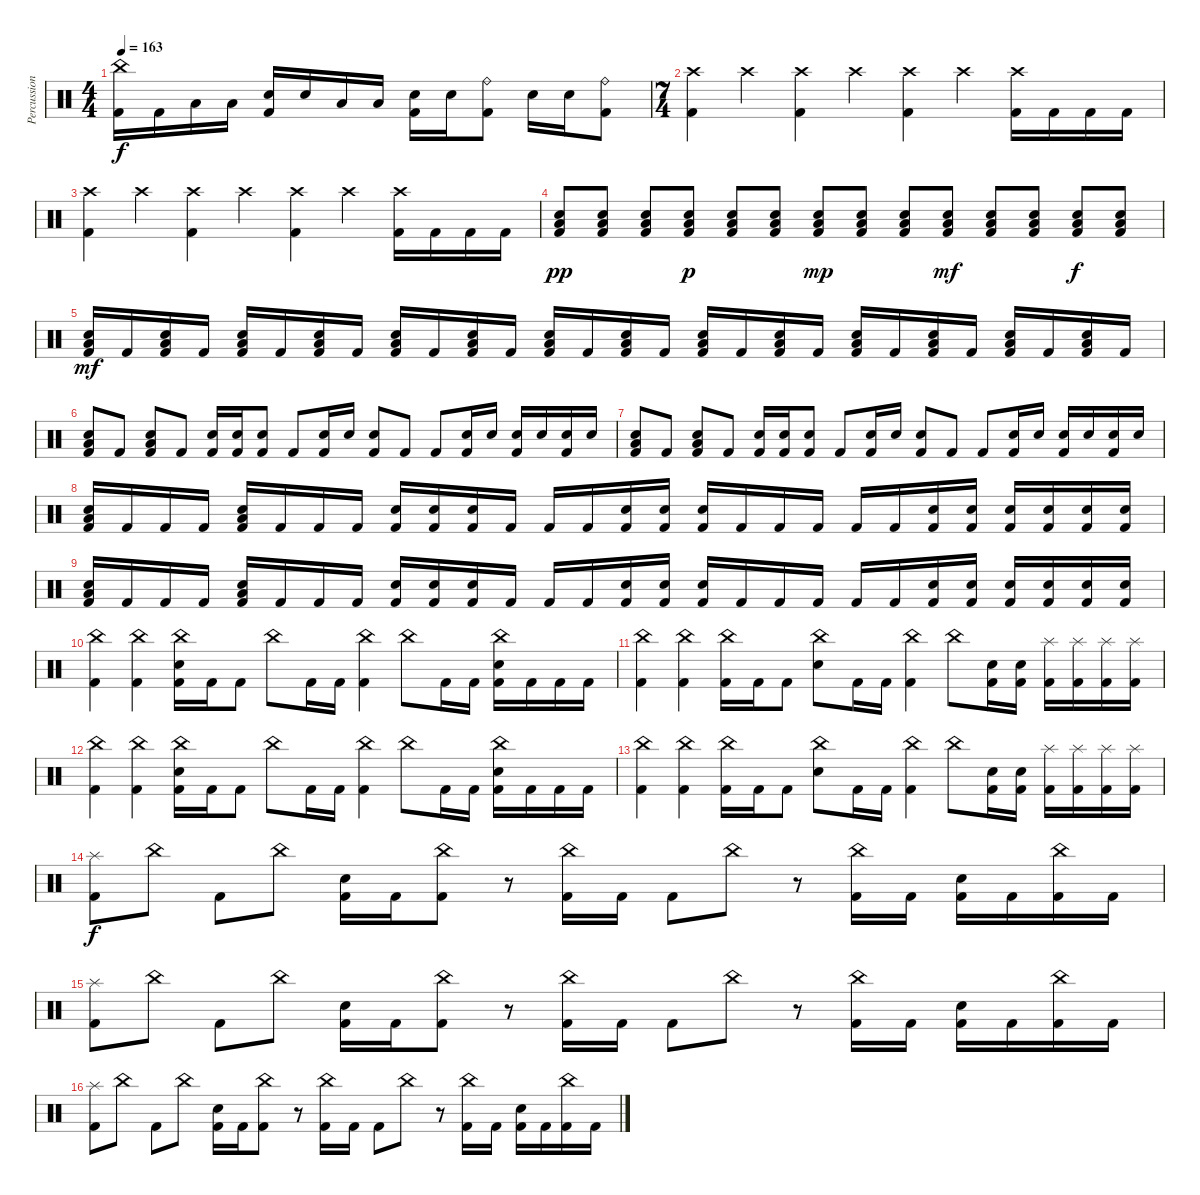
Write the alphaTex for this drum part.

\track ("Percussion" "Percussion") {instrument percussion}
\staff {score}
\articulation defaults
\ts (4 4)
\tempo 163
\clef neutral
\ks c
("China (hit)" "Kick (hit) 2").16{dy f} "Kick (hit) 2".16 "Low Tom (hit)".16 "Low Tom (hit)".16 ("Electric Snare (hit)" "Kick (hit) 2").16 "Electric Snare (hit)".16 "Low Tom (hit)".16 "Low Tom (hit)".16 ("Electric Snare (hit)" "Kick (hit) 2").16 "Electric Snare (hit)".16 ("Ride (bell)" "Kick (hit) 2").8 "Electric Snare (hit)".16 "Electric Snare (hit)".16 ("Ride (bell)" "Kick (hit) 2").8 |
\ts (7 4)
("Crash high (hit)" "Kick (hit) 2").4 "Crash high (hit)".4 ("Crash high (hit)" "Kick (hit) 2").4 "Crash high (hit)".4 ("Crash high (hit)" "Kick (hit) 2").4 "Crash high (hit)".4 ("Crash high (hit)" "Kick (hit) 2").16 "Kick (hit) 2".16 "Kick (hit) 2".16 "Kick (hit) 2".16 |
("Crash high (hit)" "Kick (hit) 2").4 "Crash high (hit)".4 ("Crash high (hit)" "Kick (hit) 2").4 "Crash high (hit)".4 ("Crash high (hit)" "Kick (hit) 2").4 "Crash high (hit)".4 ("Crash high (hit)" "Kick (hit) 2").16 "Kick (hit) 2".16 "Kick (hit) 2".16 "Kick (hit) 2".16 |
("Low Floor Tom (hit)" "Electric Snare (hit)" "Kick (hit) 2").8{dy pp} ("Low Floor Tom (hit)" "Electric Snare (hit)" "Kick (hit) 2").8 ("Low Floor Tom (hit)" "Electric Snare (hit)" "Kick (hit) 2").8 ("Low Floor Tom (hit)" "Electric Snare (hit)" "Kick (hit) 2").8{dy p} ("Low Floor Tom (hit)" "Electric Snare (hit)" "Kick (hit) 2").8 ("Low Floor Tom (hit)" "Electric Snare (hit)" "Kick (hit) 2").8 ("Low Floor Tom (hit)" "Electric Snare (hit)" "Kick (hit) 2").8{dy mp} ("Low Floor Tom (hit)" "Electric Snare (hit)" "Kick (hit) 2").8 ("Low Floor Tom (hit)" "Electric Snare (hit)" "Kick (hit) 2").8 ("Low Floor Tom (hit)" "Electric Snare (hit)" "Kick (hit) 2").8{dy mf} ("Low Floor Tom (hit)" "Electric Snare (hit)" "Kick (hit) 2").8 ("Low Floor Tom (hit)" "Electric Snare (hit)" "Kick (hit) 2").8 ("Low Floor Tom (hit)" "Electric Snare (hit)" "Kick (hit) 2").8{dy f} ("Low Floor Tom (hit)" "Electric Snare (hit)" "Kick (hit) 2").8 |
("Electric Snare (hit)" "Low Floor Tom (hit)" "Kick (hit) 2").16{dy mf} "Kick (hit) 2".16 ("Electric Snare (hit)" "Low Floor Tom (hit)" "Kick (hit) 2").16 "Kick (hit) 2".16 ("Electric Snare (hit)" "Low Floor Tom (hit)" "Kick (hit) 2").16 "Kick (hit) 2".16 ("Electric Snare (hit)" "Low Floor Tom (hit)" "Kick (hit) 2").16 "Kick (hit) 2".16 ("Electric Snare (hit)" "Low Floor Tom (hit)" "Kick (hit) 2").16 "Kick (hit) 2".16 ("Electric Snare (hit)" "Low Floor Tom (hit)" "Kick (hit) 2").16 "Kick (hit) 2".16 ("Electric Snare (hit)" "Low Floor Tom (hit)" "Kick (hit) 2").16 "Kick (hit) 2".16 ("Electric Snare (hit)" "Low Floor Tom (hit)" "Kick (hit) 2").16 "Kick (hit) 2".16 ("Electric Snare (hit)" "Low Floor Tom (hit)" "Kick (hit) 2").16 "Kick (hit) 2".16 ("Electric Snare (hit)" "Low Floor Tom (hit)" "Kick (hit) 2").16 "Kick (hit) 2".16 ("Electric Snare (hit)" "Low Floor Tom (hit)" "Kick (hit) 2").16 "Kick (hit) 2".16 ("Electric Snare (hit)" "Low Floor Tom (hit)" "Kick (hit) 2").16 "Kick (hit) 2".16 ("Electric Snare (hit)" "Low Floor Tom (hit)" "Kick (hit) 2").16 "Kick (hit) 2".16 ("Electric Snare (hit)" "Low Floor Tom (hit)" "Kick (hit) 2").16 "Kick (hit) 2".16 |
("Low Floor Tom (hit)" "Electric Snare (hit)" "Kick (hit) 2").8 "Kick (hit) 2".8 ("Low Floor Tom (hit)" "Electric Snare (hit)" "Kick (hit) 2").8 "Kick (hit) 2".8 ("Electric Snare (hit)" "Kick (hit) 2").16 ("Electric Snare (hit)" "Kick (hit) 2").16 ("Electric Snare (hit)" "Kick (hit) 2").8 "Kick (hit) 2".8 ("Electric Snare (hit)" "Kick (hit) 2").16 "Electric Snare (hit)".16 ("Electric Snare (hit)" "Kick (hit) 2").8 "Kick (hit) 2".8 "Kick (hit) 2".8 ("Electric Snare (hit)" "Kick (hit) 2").16 "Electric Snare (hit)".16 ("Electric Snare (hit)" "Kick (hit) 2").16 "Electric Snare (hit)".16 ("Electric Snare (hit)" "Kick (hit) 2").16 "Electric Snare (hit)".16 |
("Low Floor Tom (hit)" "Electric Snare (hit)" "Kick (hit) 2").8 "Kick (hit) 2".8 ("Low Floor Tom (hit)" "Electric Snare (hit)" "Kick (hit) 2").8 "Kick (hit) 2".8 ("Electric Snare (hit)" "Kick (hit) 2").16 ("Electric Snare (hit)" "Kick (hit) 2").16 ("Electric Snare (hit)" "Kick (hit) 2").8 "Kick (hit) 2".8 ("Electric Snare (hit)" "Kick (hit) 2").16 "Electric Snare (hit)".16 ("Electric Snare (hit)" "Kick (hit) 2").8 "Kick (hit) 2".8 "Kick (hit) 2".8 ("Electric Snare (hit)" "Kick (hit) 2").16 "Electric Snare (hit)".16 ("Electric Snare (hit)" "Kick (hit) 2").16 "Electric Snare (hit)".16 ("Electric Snare (hit)" "Kick (hit) 2").16 "Electric Snare (hit)".16 |
("Low Floor Tom (hit)" "Electric Snare (hit)" "Kick (hit) 2").16 "Kick (hit) 2".16 "Kick (hit) 2".16 "Kick (hit) 2".16 ("Low Floor Tom (hit)" "Electric Snare (hit)" "Kick (hit) 2").16 "Kick (hit) 2".16 "Kick (hit) 2".16 "Kick (hit) 2".16 ("Electric Snare (hit)" "Kick (hit) 2").16 ("Electric Snare (hit)" "Kick (hit) 2").16 ("Electric Snare (hit)" "Kick (hit) 2").16 "Kick (hit) 2".16 "Kick (hit) 2".16 "Kick (hit) 2".16 ("Electric Snare (hit)" "Kick (hit) 2").16 ("Electric Snare (hit)" "Kick (hit) 2").16 ("Electric Snare (hit)" "Kick (hit) 2").16 "Kick (hit) 2".16 "Kick (hit) 2".16 "Kick (hit) 2".16 "Kick (hit) 2".16 "Kick (hit) 2".16 ("Electric Snare (hit)" "Kick (hit) 2").16 ("Electric Snare (hit)" "Kick (hit) 2").16 ("Electric Snare (hit)" "Kick (hit) 2").16 ("Electric Snare (hit)" "Kick (hit) 2").16 ("Electric Snare (hit)" "Kick (hit) 2").16 ("Electric Snare (hit)" "Kick (hit) 2").16 |
("Low Floor Tom (hit)" "Electric Snare (hit)" "Kick (hit) 2").16 "Kick (hit) 2".16 "Kick (hit) 2".16 "Kick (hit) 2".16 ("Low Floor Tom (hit)" "Electric Snare (hit)" "Kick (hit) 2").16 "Kick (hit) 2".16 "Kick (hit) 2".16 "Kick (hit) 2".16 ("Electric Snare (hit)" "Kick (hit) 2").16 ("Electric Snare (hit)" "Kick (hit) 2").16 ("Electric Snare (hit)" "Kick (hit) 2").16 "Kick (hit) 2".16 "Kick (hit) 2".16 "Kick (hit) 2".16 ("Electric Snare (hit)" "Kick (hit) 2").16 ("Electric Snare (hit)" "Kick (hit) 2").16 ("Electric Snare (hit)" "Kick (hit) 2").16 "Kick (hit) 2".16 "Kick (hit) 2".16 "Kick (hit) 2".16 "Kick (hit) 2".16 "Kick (hit) 2".16 ("Electric Snare (hit)" "Kick (hit) 2").16 ("Electric Snare (hit)" "Kick (hit) 2").16 ("Electric Snare (hit)" "Kick (hit) 2").16 ("Electric Snare (hit)" "Kick (hit) 2").16 ("Electric Snare (hit)" "Kick (hit) 2").16 ("Electric Snare (hit)" "Kick (hit) 2").16 |
("China (hit)" "Kick (hit) 2").4 ("China (hit)" "Kick (hit) 2").4 ("China (hit)" "Electric Snare (hit)" "Kick (hit) 2").16 "Kick (hit) 2".16 "Kick (hit) 2".8 "China (hit)".8 "Kick (hit) 2".16 "Kick (hit) 2".16 ("China (hit)" "Kick (hit) 2").4 "China (hit)".8 "Kick (hit) 2".16 "Kick (hit) 2".16 ("China (hit)" "Electric Snare (hit)" "Kick (hit) 2").16 "Kick (hit) 2".16 "Kick (hit) 2".16 "Kick (hit) 2".16 |
("China (hit)" "Kick (hit) 2").4 ("China (hit)" "Kick (hit) 2").4 ("China (hit)" "Kick (hit) 2").16 "Kick (hit) 2".16 "Kick (hit) 2".8 ("China (hit)" "Electric Snare (hit)").8 "Kick (hit) 2".16 "Kick (hit) 2".16 ("China (hit)" "Kick (hit) 2").4 "China (hit)".8 ("Electric Snare (hit)" "Kick (hit) 2").16 ("Electric Snare (hit)" "Kick (hit) 2").16 ("Splash (hit)" "Kick (hit) 2").16 ("Splash (hit)" "Kick (hit) 2").16 ("Splash (hit)" "Kick (hit) 2").16 ("Splash (hit)" "Kick (hit) 2").16 |
("China (hit)" "Kick (hit) 2").4 ("China (hit)" "Kick (hit) 2").4 ("China (hit)" "Electric Snare (hit)" "Kick (hit) 2").16 "Kick (hit) 2".16 "Kick (hit) 2".8 "China (hit)".8 "Kick (hit) 2".16 "Kick (hit) 2".16 ("China (hit)" "Kick (hit) 2").4 "China (hit)".8 "Kick (hit) 2".16 "Kick (hit) 2".16 ("China (hit)" "Electric Snare (hit)" "Kick (hit) 2").16 "Kick (hit) 2".16 "Kick (hit) 2".16 "Kick (hit) 2".16 |
("China (hit)" "Kick (hit) 2").4 ("China (hit)" "Kick (hit) 2").4 ("China (hit)" "Kick (hit) 2").16 "Kick (hit) 2".16 "Kick (hit) 2".8 ("China (hit)" "Electric Snare (hit)").8 "Kick (hit) 2".16 "Kick (hit) 2".16 ("China (hit)" "Kick (hit) 2").4 "China (hit)".8 ("Electric Snare (hit)" "Kick (hit) 2").16 ("Electric Snare (hit)" "Kick (hit) 2").16 ("Splash (hit)" "Kick (hit) 2").16 ("Splash (hit)" "Kick (hit) 2").16 ("Splash (hit)" "Kick (hit) 2").16 ("Splash (hit)" "Kick (hit) 2").16 |
("Splash (hit)" "Kick (hit) 2").8{dy f} "China (hit)".8 "Kick (hit) 2".8 "China (hit)".8 ("Electric Snare (hit)" "Kick (hit) 2").16 "Kick (hit) 2".16 ("China (hit)" "Kick (hit) 2").8 r.8 ("China (hit)" "Kick (hit) 2").16 "Kick (hit) 2".16 "Kick (hit) 2".8 "China (hit)".8 r.8 ("China (hit)" "Kick (hit) 2").16 "Kick (hit) 2".16 ("Electric Snare (hit)" "Kick (hit) 2").16 "Kick (hit) 2".16 ("China (hit)" "Kick (hit) 2").16 "Kick (hit) 2".16 |
("Splash (hit)" "Kick (hit) 2").8 "China (hit)".8 "Kick (hit) 2".8 "China (hit)".8 ("Electric Snare (hit)" "Kick (hit) 2").16 "Kick (hit) 2".16 ("China (hit)" "Kick (hit) 2").8 r.8 ("China (hit)" "Kick (hit) 2").16 "Kick (hit) 2".16 "Kick (hit) 2".8 "China (hit)".8 r.8 ("China (hit)" "Kick (hit) 2").16 "Kick (hit) 2".16 ("Electric Snare (hit)" "Kick (hit) 2").16 "Kick (hit) 2".16 ("China (hit)" "Kick (hit) 2").16 "Kick (hit) 2".16 |
("Splash (hit)" "Kick (hit) 2").8 "China (hit)".8 "Kick (hit) 2".8 "China (hit)".8 ("Electric Snare (hit)" "Kick (hit) 2").16 "Kick (hit) 2".16 ("China (hit)" "Kick (hit) 2").8 r.8 ("China (hit)" "Kick (hit) 2").16 "Kick (hit) 2".16 "Kick (hit) 2".8 "China (hit)".8 r.8 ("China (hit)" "Kick (hit) 2").16 "Kick (hit) 2".16 ("Electric Snare (hit)" "Kick (hit) 2").16 "Kick (hit) 2".16 ("China (hit)" "Kick (hit) 2").16 "Kick (hit) 2".16
